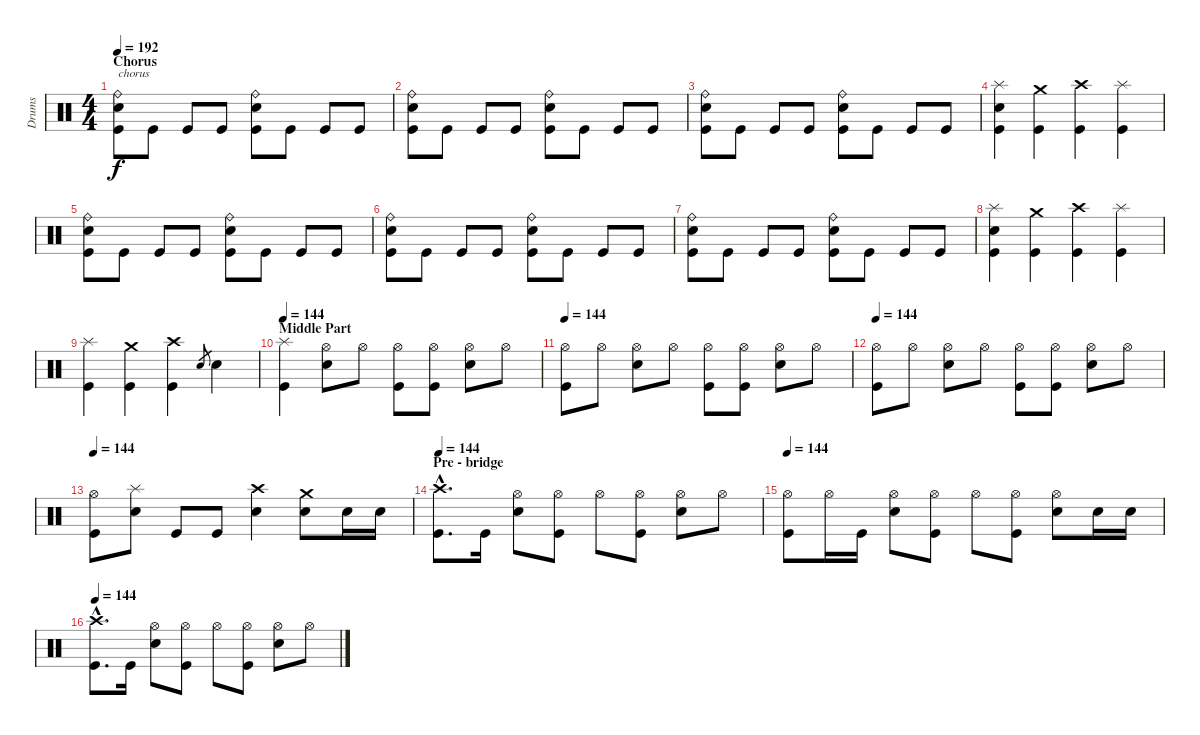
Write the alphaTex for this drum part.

\track ("Drums" "Drums") {instrument percussion}
\staff {score}
\articulation defaults
\ts (4 4)
\section ("" "Chorus")
\tempo 192
\clef neutral
\ks c
("Kick (hit)" "Electric Snare (hit)" "Ride (bell)").8{txt "chorus" dy f} "Kick (hit)".8 "Kick (hit)".8 "Kick (hit)".8 ("Kick (hit)" "Electric Snare (hit)" "Ride (bell)").8 "Kick (hit)".8 "Kick (hit)".8 "Kick (hit)".8 |
("Kick (hit)" "Electric Snare (hit)" "Ride (bell)").8 "Kick (hit)".8 "Kick (hit)".8 "Kick (hit)".8 ("Kick (hit)" "Electric Snare (hit)" "Ride (bell)").8 "Kick (hit)".8 "Kick (hit)".8 "Kick (hit)".8 |
("Kick (hit)" "Electric Snare (hit)" "Ride (bell)").8 "Kick (hit)".8 "Kick (hit)".8 "Kick (hit)".8 ("Kick (hit)" "Electric Snare (hit)" "Ride (bell)").8 "Kick (hit)".8 "Kick (hit)".8 "Kick (hit)".8 |
("Kick (hit)" "Electric Snare (hit)" "Splash (hit)").4 ("Kick (hit)" "Crash medium (hit)").4 ("Kick (hit)" "Crash high (hit)").4 ("Kick (hit)" "Splash (hit)").4 |
("Kick (hit)" "Electric Snare (hit)" "Ride (bell)").8 "Kick (hit)".8 "Kick (hit)".8 "Kick (hit)".8 ("Kick (hit)" "Electric Snare (hit)" "Ride (bell)").8 "Kick (hit)".8 "Kick (hit)".8 "Kick (hit)".8 |
("Kick (hit)" "Electric Snare (hit)" "Ride (bell)").8 "Kick (hit)".8 "Kick (hit)".8 "Kick (hit)".8 ("Kick (hit)" "Electric Snare (hit)" "Ride (bell)").8 "Kick (hit)".8 "Kick (hit)".8 "Kick (hit)".8 |
("Kick (hit)" "Electric Snare (hit)" "Ride (bell)").8 "Kick (hit)".8 "Kick (hit)".8 "Kick (hit)".8 ("Kick (hit)" "Electric Snare (hit)" "Ride (bell)").8 "Kick (hit)".8 "Kick (hit)".8 "Kick (hit)".8 |
("Kick (hit)" "Electric Snare (hit)" "Splash (hit)").4 ("Kick (hit)" "Crash medium (hit)").4 ("Kick (hit)" "Crash high (hit)").4 ("Kick (hit)" "Splash (hit)").4 |
("Kick (hit)" "Splash (hit)").4 ("Kick (hit)" "Crash medium (hit)").4 ("Kick (hit)" "Crash high (hit)").4 "Electric Snare (hit)".8{gr} "Electric Snare (hit)".4 |
\section ("" "Middle Part")
\tempo 144
("Kick (hit)" "Splash (hit)").4 ("Electric Snare (hit)" "Hi-Hat (open)").8 "Hi-Hat (open)".8 ("Kick (hit)" "Hi-Hat (open)").8 ("Kick (hit)" "Hi-Hat (open)").8 ("Electric Snare (hit)" "Hi-Hat (open)").8 "Hi-Hat (open)".8 |
\tempo 144
("Kick (hit)" "Hi-Hat (open)").8 "Hi-Hat (open)".8 ("Electric Snare (hit)" "Hi-Hat (open)").8 "Hi-Hat (open)".8 ("Kick (hit)" "Hi-Hat (open)").8 ("Kick (hit)" "Hi-Hat (open)").8 ("Electric Snare (hit)" "Hi-Hat (open)").8 "Hi-Hat (open)".8 |
\tempo 144
("Kick (hit)" "Hi-Hat (open)").8 "Hi-Hat (open)".8 ("Electric Snare (hit)" "Hi-Hat (open)").8 "Hi-Hat (open)".8 ("Kick (hit)" "Hi-Hat (open)").8 ("Kick (hit)" "Hi-Hat (open)").8 ("Electric Snare (hit)" "Hi-Hat (open)").8 "Hi-Hat (open)".8 |
\tempo 144
("Kick (hit)" "Hi-Hat (open)").8 ("Electric Snare (hit)" "Splash (hit)").8 "Kick (hit)".8 "Kick (hit)".8 ("Electric Snare (hit)" "Crash high (hit)").4 ("Electric Snare (hit)" "Crash medium (hit)").8 "Electric Snare (hit)".16 "Electric Snare (hit)".16 |
\section ("" "Pre - bridge")
\tempo 144
("Kick (hit)"{hac} "Crash high (hit)"{hac}).8{d} "Kick (hit)".16 ("Electric Snare (hit)" "Hi-Hat (open)").8 ("Kick (hit)" "Hi-Hat (open)").8 "Hi-Hat (open)".8 ("Kick (hit)" "Hi-Hat (open)").8 ("Electric Snare (hit)" "Hi-Hat (open)").8 "Hi-Hat (open)".8 |
\tempo 144
("Kick (hit)" "Hi-Hat (open)").8 "Hi-Hat (open)".16 "Kick (hit)".16 ("Electric Snare (hit)" "Hi-Hat (open)").8 ("Kick (hit)" "Hi-Hat (open)").8 "Hi-Hat (open)".8 ("Kick (hit)" "Hi-Hat (open)").8 ("Electric Snare (hit)" "Hi-Hat (open)").8 "Electric Snare (hit)".16 "Electric Snare (hit)".16 |
\tempo 144
("Kick (hit)"{hac} "Crash high (hit)"{hac}).8{d} "Kick (hit)".16 ("Electric Snare (hit)" "Hi-Hat (open)").8 ("Kick (hit)" "Hi-Hat (open)").8 "Hi-Hat (open)".8 ("Kick (hit)" "Hi-Hat (open)").8 ("Electric Snare (hit)" "Hi-Hat (open)").8 "Hi-Hat (open)".8
